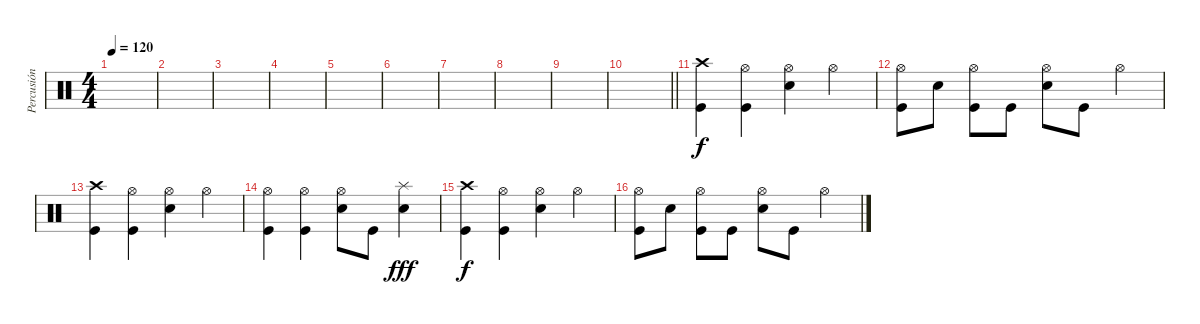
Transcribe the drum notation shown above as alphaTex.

\track ("Percusión" "Percusión") {instrument percussion}
\staff {score}
\articulation defaults
\ts (4 4)
\tempo 120
\clef neutral
\ks c
|
|
|
|
|
|
|
|
|
\barLineRight lightlight
|
("Crash high (hit)" "Kick (hit)").4 ("Hi-Hat (open)" "Kick (hit)").4 ("Hi-Hat (open)" "Electric Snare (hit)").4 "Hi-Hat (open)".4 |
("Hi-Hat (open)" "Kick (hit)").8 "Electric Snare (hit)".8 ("Hi-Hat (open)" "Kick (hit)").8 "Kick (hit)".8 ("Hi-Hat (open)" "Electric Snare (hit)").8 "Kick (hit)".8 "Hi-Hat (open)".4 |
("Crash high (hit)" "Kick (hit)").4 ("Hi-Hat (open)" "Kick (hit)").4 ("Hi-Hat (open)" "Electric Snare (hit)").4 "Hi-Hat (open)".4 |
("Hi-Hat (open)" "Kick (hit)").4 ("Hi-Hat (open)" "Kick (hit)").4 ("Hi-Hat (open)" "Electric Snare (hit)").8 "Kick (hit)".8 ("Splash (hit)" "Electric Snare (hit)").4{dy fff} |
("Crash high (hit)" "Kick (hit)").4{dy f} ("Hi-Hat (open)" "Kick (hit)").4 ("Hi-Hat (open)" "Electric Snare (hit)").4 "Hi-Hat (open)".4 |
("Hi-Hat (open)" "Kick (hit)").8 "Electric Snare (hit)".8 ("Hi-Hat (open)" "Kick (hit)").8 "Kick (hit)".8 ("Hi-Hat (open)" "Electric Snare (hit)").8 "Kick (hit)".8 "Hi-Hat (open)".4
